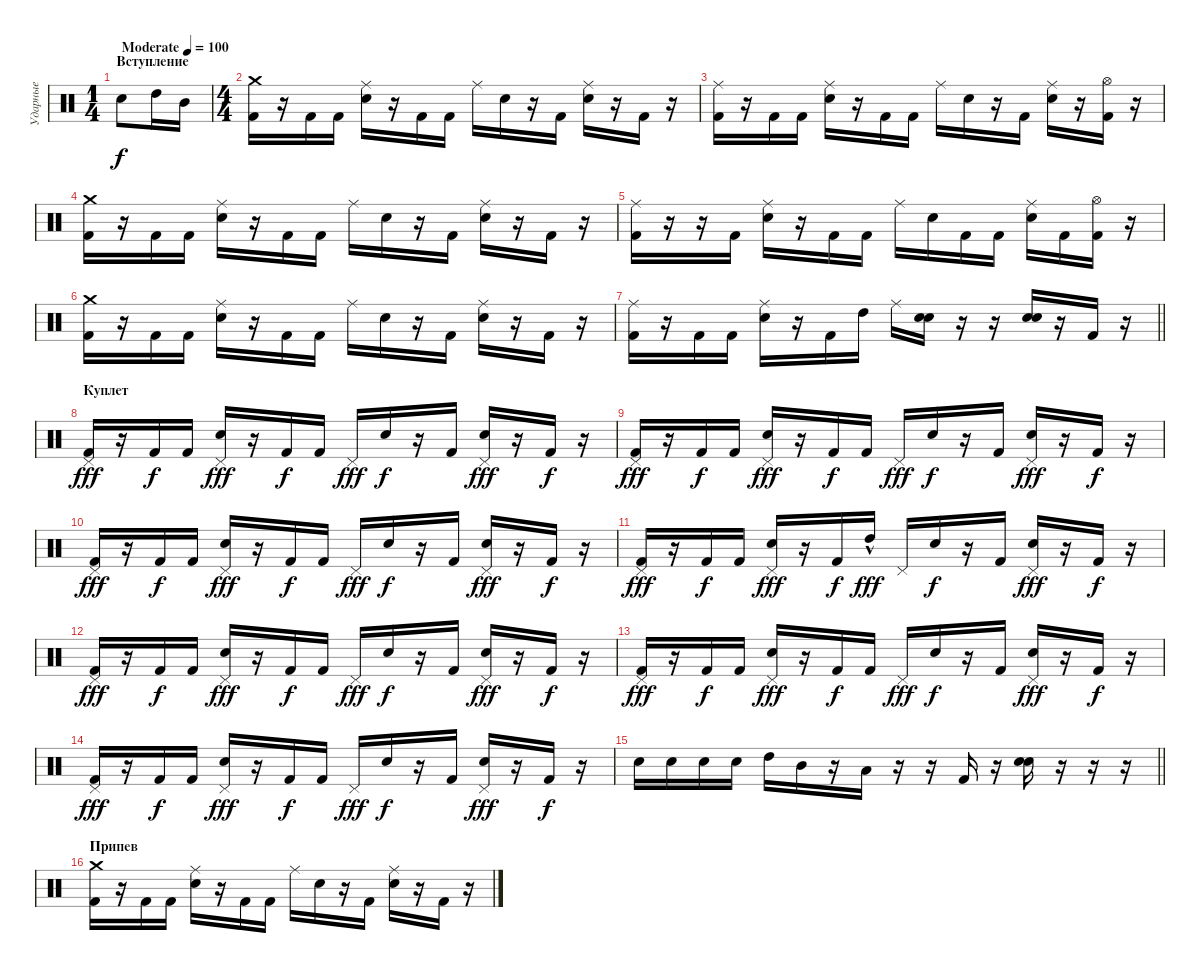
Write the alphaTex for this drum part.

\track ("Ударные" "Ударные") {instrument percussion}
\staff {score}
\articulation defaults
\ts (1 4)
\section ("" "Вступление")
\tempo (100 "Moderate")
\clef neutral
\ks c "Electric Snare (hit)".8{dy f} "High Tom (hit)".16 "Mid Tom (hit)".16
|
\ts (4 4)
("Kick (hit) 2" "Crash medium (hit)").16 r.16 "Kick (hit) 2".16 "Kick (hit) 2".16 ("Electric Snare (hit)" "Ride (middle)").16 r.16 "Kick (hit) 2".16 "Kick (hit) 2".16 "Ride (middle)".16 "Electric Snare (hit)".16 r.16 "Kick (hit) 2".16 ("Electric Snare (hit)" "Ride (middle)").16 r.16 "Kick (hit) 2".16 r.16 |
("Kick (hit) 2" "Ride (middle)").16 r.16 "Kick (hit) 2".16 "Kick (hit) 2".16 ("Electric Snare (hit)" "Ride (middle)").16 r.16 "Kick (hit) 2".16 "Kick (hit) 2".16 "Ride (middle)".16 "Electric Snare (hit)".16 r.16 "Kick (hit) 2".16 ("Electric Snare (hit)" "Ride (middle)").16 r.16 ("Kick (hit) 2" "Hi-Hat (open)").16 r.16 |
("Kick (hit) 2" "Crash medium (hit)").16 r.16 "Kick (hit) 2".16 "Kick (hit) 2".16 ("Electric Snare (hit)" "Ride (middle)").16 r.16 "Kick (hit) 2".16 "Kick (hit) 2".16 "Ride (middle)".16 "Electric Snare (hit)".16 r.16 "Kick (hit) 2".16 ("Electric Snare (hit)" "Ride (middle)").16 r.16 "Kick (hit) 2".16 r.16 |
("Kick (hit) 2" "Ride (middle)").16 r.16 r.16 "Kick (hit) 2".16 ("Electric Snare (hit)" "Ride (middle)").16 r.16 "Kick (hit) 2".16 "Kick (hit) 2".16 "Ride (middle)".16 "Electric Snare (hit)".16 "Kick (hit) 2".16 "Kick (hit) 2".16 ("Electric Snare (hit)" "Ride (middle)").16 "Kick (hit) 2".16 ("Kick (hit) 2" "Hi-Hat (open)").16 r.16 |
("Kick (hit) 2" "Crash medium (hit)").16 r.16 "Kick (hit) 2".16 "Kick (hit) 2".16 ("Electric Snare (hit)" "Ride (middle)").16 r.16 "Kick (hit) 2".16 "Kick (hit) 2".16 "Ride (middle)".16 "Electric Snare (hit)".16 r.16 "Kick (hit) 2".16 ("Electric Snare (hit)" "Ride (middle)").16 r.16 "Kick (hit) 2".16 r.16 |
\barLineRight lightlight
("Kick (hit) 2" "Ride (middle)").16 r.16 "Kick (hit) 2".16 "Kick (hit) 2".16 ("Electric Snare (hit)" "Ride (middle)").16 r.16 "Kick (hit) 2".16 "High Tom (hit)".16 "Ride (middle)".16 ("Electric Snare (hit)" "Electric Snare (hit)").16{bu 60} r.16 r.16 ("Electric Snare (hit)" "Electric Snare (hit)").16{bu 60} r.16 "Kick (hit) 2".16 r.16 |
\section ("" "Куплет")
("Kick (hit) 2" "Pedal Hi-Hat (hit)").16{dy fff} r.16 "Kick (hit) 2".16{dy f} "Kick (hit) 2".16 ("Electric Snare (hit)" "Pedal Hi-Hat (hit)").16{dy fff} r.16 "Kick (hit) 2".16{dy f} "Kick (hit) 2".16 "Pedal Hi-Hat (hit)".16{dy fff} "Electric Snare (hit)".16{dy f} r.16 "Kick (hit) 2".16 ("Electric Snare (hit)" "Pedal Hi-Hat (hit)").16{dy fff} r.16 "Kick (hit) 2".16{dy f} r.16 |
("Kick (hit) 2" "Pedal Hi-Hat (hit)").16{dy fff} r.16 "Kick (hit) 2".16{dy f} "Kick (hit) 2".16 ("Electric Snare (hit)" "Pedal Hi-Hat (hit)").16{dy fff} r.16 "Kick (hit) 2".16{dy f} "Kick (hit) 2".16 "Pedal Hi-Hat (hit)".16{dy fff} "Electric Snare (hit)".16{dy f} r.16 "Kick (hit) 2".16 ("Electric Snare (hit)" "Pedal Hi-Hat (hit)").16{dy fff} r.16 "Kick (hit) 2".16{dy f} r.16 |
("Kick (hit) 2" "Pedal Hi-Hat (hit)").16{dy fff} r.16 "Kick (hit) 2".16{dy f} "Kick (hit) 2".16 ("Electric Snare (hit)" "Pedal Hi-Hat (hit)").16{dy fff} r.16 "Kick (hit) 2".16{dy f} "Kick (hit) 2".16 "Pedal Hi-Hat (hit)".16{dy fff} "Electric Snare (hit)".16{dy f} r.16 "Kick (hit) 2".16 ("Electric Snare (hit)" "Pedal Hi-Hat (hit)").16{dy fff} r.16 "Kick (hit) 2".16{dy f} r.16 |
("Kick (hit) 2" "Pedal Hi-Hat (hit)").16{dy fff} r.16 "Kick (hit) 2".16{dy f} "Kick (hit) 2".16 ("Electric Snare (hit)" "Pedal Hi-Hat (hit)").16{dy fff} r.16 "Kick (hit) 2".16{dy f} "High Tom (hit)"{hac}.16{dy fff} "Pedal Hi-Hat (hit)".16 "Electric Snare (hit)".16{dy f} r.16 "Kick (hit) 2".16 ("Electric Snare (hit)" "Pedal Hi-Hat (hit)").16{dy fff} r.16 "Kick (hit) 2".16{dy f} r.16 |
("Kick (hit) 2" "Pedal Hi-Hat (hit)").16{dy fff} r.16 "Kick (hit) 2".16{dy f} "Kick (hit) 2".16 ("Electric Snare (hit)" "Pedal Hi-Hat (hit)").16{dy fff} r.16 "Kick (hit) 2".16{dy f} "Kick (hit) 2".16 "Pedal Hi-Hat (hit)".16{dy fff} "Electric Snare (hit)".16{dy f} r.16 "Kick (hit) 2".16 ("Electric Snare (hit)" "Pedal Hi-Hat (hit)").16{dy fff} r.16 "Kick (hit) 2".16{dy f} r.16 |
("Kick (hit) 2" "Pedal Hi-Hat (hit)").16{dy fff} r.16 "Kick (hit) 2".16{dy f} "Kick (hit) 2".16 ("Electric Snare (hit)" "Pedal Hi-Hat (hit)").16{dy fff} r.16 "Kick (hit) 2".16{dy f} "Kick (hit) 2".16 "Pedal Hi-Hat (hit)".16{dy fff} "Electric Snare (hit)".16{dy f} r.16 "Kick (hit) 2".16 ("Electric Snare (hit)" "Pedal Hi-Hat (hit)").16{dy fff} r.16 "Kick (hit) 2".16{dy f} r.16 |
("Kick (hit) 2" "Pedal Hi-Hat (hit)").16{dy fff} r.16 "Kick (hit) 2".16{dy f} "Kick (hit) 2".16 ("Electric Snare (hit)" "Pedal Hi-Hat (hit)").16{dy fff} r.16 "Kick (hit) 2".16{dy f} "Kick (hit) 2".16 "Pedal Hi-Hat (hit)".16{dy fff} "Electric Snare (hit)".16{dy f} r.16 "Kick (hit) 2".16 ("Electric Snare (hit)" "Pedal Hi-Hat (hit)").16{dy fff} r.16 "Kick (hit) 2".16{dy f} r.16 |
\barLineRight lightlight "Electric Snare (hit)".16 "Electric Snare (hit)".16 "Electric Snare (hit)".16 "Electric Snare (hit)".16 "High Tom (hit)".16 "Mid Tom (hit)".16
r.16 "Low Tom (hit)".16 r.16 r.16 "Kick (hit) 2".16 r.16 ("Electric Snare (hit)" "Electric Snare (hit)").16{bd 120} r.16 r.16 r.16 |
\section ("" "Припев")
("Kick (hit) 2" "Crash medium (hit)").16 r.16 "Kick (hit) 2".16 "Kick (hit) 2".16 ("Electric Snare (hit)" "Ride (middle)").16 r.16 "Kick (hit) 2".16 "Kick (hit) 2".16 "Ride (middle)".16 "Electric Snare (hit)".16 r.16 "Kick (hit) 2".16 ("Electric Snare (hit)" "Ride (middle)").16 r.16 "Kick (hit) 2".16 r.16
